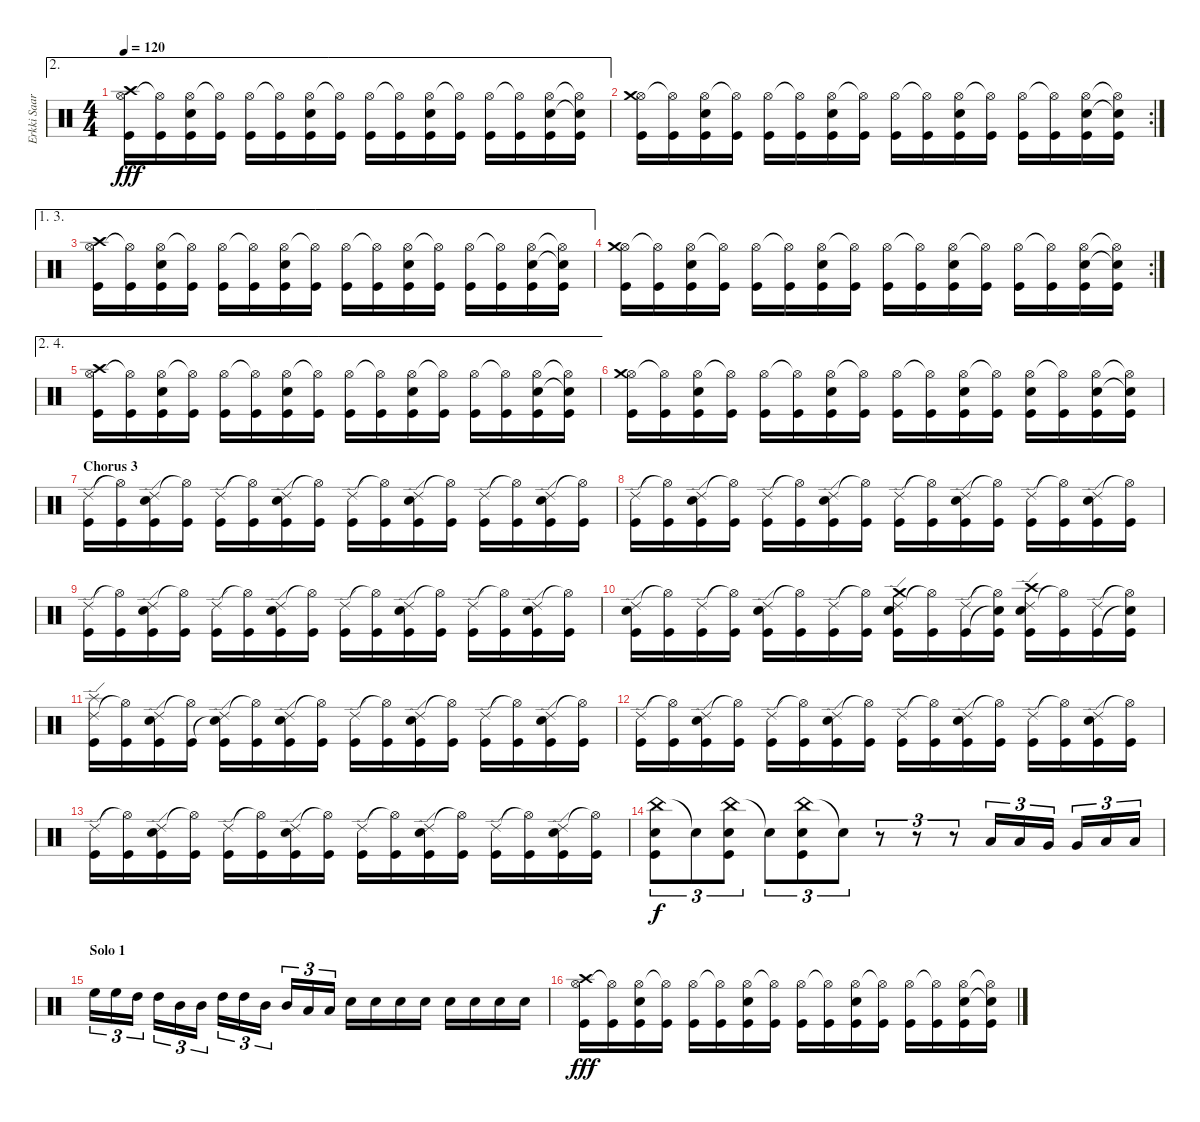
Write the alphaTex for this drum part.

\track ("Erkki Saarinen" "Erkki Saar") {instrument percussion}
\staff {score}
\articulation defaults
\ae 2
\ts (4 4)
\tempo 120
\clef neutral
\ks c
("Hi-Hat (open)" "Crash high (hit)" "Kick (hit)").16{dy fff} ("Hi-Hat (open)"{t} "Kick (hit)").16 ("Hi-Hat (open)" "Snare (hit) 2" "Kick (hit)").16 ("Hi-Hat (open)"{t} "Kick (hit)").16 ("Hi-Hat (open)" "Kick (hit)").16 ("Hi-Hat (open)"{t} "Kick (hit)").16 ("Hi-Hat (open)" "Snare (hit) 2" "Kick (hit)").16 ("Hi-Hat (open)"{t} "Kick (hit)").16 ("Hi-Hat (open)" "Kick (hit)").16 ("Hi-Hat (open)"{t} "Kick (hit)").16 ("Hi-Hat (open)" "Snare (hit) 2" "Kick (hit)").16 ("Hi-Hat (open)"{t} "Kick (hit)").16 ("Hi-Hat (open)" "Kick (hit)").16 ("Hi-Hat (open)"{t} "Kick (hit)").16 ("Hi-Hat (open)" "Snare (hit) 2" "Kick (hit)").16 ("Hi-Hat (open)"{t} "Snare (hit)"{t} "Kick (hit)").16 |
\rc 2
("Hi-Hat (open)" "Crash medium (hit)" "Kick (hit)").16 ("Hi-Hat (open)"{t} "Kick (hit)").16 ("Hi-Hat (open)" "Snare (hit) 2" "Kick (hit)").16 ("Hi-Hat (open)"{t} "Kick (hit)").16 ("Hi-Hat (open)" "Kick (hit)").16 ("Hi-Hat (open)"{t} "Kick (hit)").16 ("Hi-Hat (open)" "Snare (hit) 2" "Kick (hit)").16 ("Hi-Hat (open)"{t} "Kick (hit)").16 ("Hi-Hat (open)" "Kick (hit)").16 ("Hi-Hat (open)"{t} "Kick (hit)").16 ("Hi-Hat (open)" "Snare (hit) 2" "Kick (hit)").16 ("Hi-Hat (open)"{t} "Kick (hit)").16 ("Hi-Hat (open)" "Kick (hit)").16 ("Hi-Hat (open)"{t} "Kick (hit)").16 ("Hi-Hat (open)" "Snare (hit) 2" "Kick (hit)").16 ("Hi-Hat (open)"{t} "Snare (hit)"{t} "Kick (hit)").16 |
\ae (1 3)
("Hi-Hat (open)" "Crash high (hit)" "Kick (hit)").16 ("Hi-Hat (open)"{t} "Kick (hit)").16 ("Hi-Hat (open)" "Snare (hit) 2" "Kick (hit)").16 ("Hi-Hat (open)"{t} "Kick (hit)").16 ("Hi-Hat (open)" "Kick (hit)").16 ("Hi-Hat (open)"{t} "Kick (hit)").16 ("Hi-Hat (open)" "Snare (hit) 2" "Kick (hit)").16 ("Hi-Hat (open)"{t} "Kick (hit)").16 ("Hi-Hat (open)" "Kick (hit)").16 ("Hi-Hat (open)"{t} "Kick (hit)").16 ("Hi-Hat (open)" "Snare (hit) 2" "Kick (hit)").16 ("Hi-Hat (open)"{t} "Kick (hit)").16 ("Hi-Hat (open)" "Kick (hit)").16 ("Hi-Hat (open)"{t} "Kick (hit)").16 ("Hi-Hat (open)" "Snare (hit) 2" "Kick (hit)").16 ("Hi-Hat (open)"{t} "Snare (hit)"{t} "Kick (hit)").16 |
\rc 2
("Hi-Hat (open)" "Crash medium (hit)" "Kick (hit)").16 ("Hi-Hat (open)"{t} "Kick (hit)").16 ("Hi-Hat (open)" "Snare (hit) 2" "Kick (hit)").16 ("Hi-Hat (open)"{t} "Kick (hit)").16 ("Hi-Hat (open)" "Kick (hit)").16 ("Hi-Hat (open)"{t} "Kick (hit)").16 ("Hi-Hat (open)" "Snare (hit) 2" "Kick (hit)").16 ("Hi-Hat (open)"{t} "Kick (hit)").16 ("Hi-Hat (open)" "Kick (hit)").16 ("Hi-Hat (open)"{t} "Kick (hit)").16 ("Hi-Hat (open)" "Snare (hit) 2" "Kick (hit)").16 ("Hi-Hat (open)"{t} "Kick (hit)").16 ("Hi-Hat (open)" "Kick (hit)").16 ("Hi-Hat (open)"{t} "Kick (hit)").16 ("Hi-Hat (open)" "Snare (hit) 2" "Kick (hit)").16 ("Hi-Hat (open)"{t} "Snare (hit)"{t} "Kick (hit)").16 |
\ae (2 4)
("Hi-Hat (open)" "Crash high (hit)" "Kick (hit)").16 ("Hi-Hat (open)"{t} "Kick (hit)").16 ("Hi-Hat (open)" "Snare (hit) 2" "Kick (hit)").16 ("Hi-Hat (open)"{t} "Kick (hit)").16 ("Hi-Hat (open)" "Kick (hit)").16 ("Hi-Hat (open)"{t} "Kick (hit)").16 ("Hi-Hat (open)" "Snare (hit) 2" "Kick (hit)").16 ("Hi-Hat (open)"{t} "Kick (hit)").16 ("Hi-Hat (open)" "Kick (hit)").16 ("Hi-Hat (open)"{t} "Kick (hit)").16 ("Hi-Hat (open)" "Snare (hit) 2" "Kick (hit)").16 ("Hi-Hat (open)"{t} "Kick (hit)").16 ("Hi-Hat (open)" "Kick (hit)").16 ("Hi-Hat (open)"{t} "Kick (hit)").16 ("Hi-Hat (open)" "Snare (hit) 2" "Kick (hit)").16 ("Hi-Hat (open)"{t} "Snare (hit)"{t} "Kick (hit)").16 |
("Hi-Hat (open)" "Crash medium (hit)" "Kick (hit)").16 ("Hi-Hat (open)"{t} "Kick (hit)").16 ("Hi-Hat (open)" "Snare (hit) 2" "Kick (hit)").16 ("Hi-Hat (open)"{t} "Kick (hit)").16 ("Hi-Hat (open)" "Kick (hit)").16 ("Hi-Hat (open)"{t} "Kick (hit)").16 ("Hi-Hat (open)" "Snare (hit) 2" "Kick (hit)").16 ("Hi-Hat (open)"{t} "Kick (hit)").16 ("Hi-Hat (open)" "Kick (hit)").16 ("Hi-Hat (open)"{t} "Kick (hit)").16 ("Hi-Hat (open)" "Snare (hit) 2" "Kick (hit)").16 ("Hi-Hat (open)"{t} "Kick (hit)").16 ("Hi-Hat (open)" "Snare (hit) 2" "Kick (hit)").16 ("Hi-Hat (open)"{t} "Kick (hit)").16 ("Hi-Hat (open)" "Snare (hit) 2" "Kick (hit)").16 ("Hi-Hat (open)"{t} "Snare (hit)"{t} "Kick (hit)").16 |
\section ("" "Chorus 3")
("Ride (edge) 2" "Kick (hit)").16 ("Hi-Hat (open)"{t} "Kick (hit)").16 ("Ride (edge) 2" "Snare (hit) 2" "Kick (hit)").16 ("Hi-Hat (open)"{t} "Kick (hit)").16 ("Ride (edge) 2" "Kick (hit)").16 ("Hi-Hat (open)"{t} "Kick (hit)").16 ("Ride (edge) 2" "Snare (hit) 2" "Kick (hit)").16 ("Hi-Hat (open)"{t} "Kick (hit)").16 ("Ride (edge) 2" "Kick (hit)").16 ("Hi-Hat (open)"{t} "Kick (hit)").16 ("Ride (edge) 2" "Snare (hit) 2" "Kick (hit)").16 ("Hi-Hat (open)"{t} "Kick (hit)").16 ("Ride (edge) 2" "Kick (hit)").16 ("Hi-Hat (open)"{t} "Kick (hit)").16 ("Ride (edge) 2" "Snare (hit) 2" "Kick (hit)").16 ("Hi-Hat (open)"{t} "Kick (hit)").16 |
("Ride (edge) 2" "Kick (hit)").16 ("Hi-Hat (open)"{t} "Kick (hit)").16 ("Ride (edge) 2" "Snare (hit) 2" "Kick (hit)").16 ("Hi-Hat (open)"{t} "Kick (hit)").16 ("Ride (edge) 2" "Kick (hit)").16 ("Hi-Hat (open)"{t} "Kick (hit)").16 ("Ride (edge) 2" "Snare (hit) 2" "Kick (hit)").16 ("Hi-Hat (open)"{t} "Kick (hit)").16 ("Ride (edge) 2" "Kick (hit)").16 ("Hi-Hat (open)"{t} "Kick (hit)").16 ("Ride (edge) 2" "Snare (hit) 2" "Kick (hit)").16 ("Hi-Hat (open)"{t} "Kick (hit)").16 ("Ride (edge) 2" "Kick (hit)").16 ("Hi-Hat (open)"{t} "Kick (hit)").16 ("Ride (edge) 2" "Snare (hit) 2" "Kick (hit)").16 ("Hi-Hat (open)"{t} "Kick (hit)").16 |
("Ride (edge) 2" "Kick (hit)").16 ("Hi-Hat (open)"{t} "Kick (hit)").16 ("Ride (edge) 2" "Snare (hit) 2" "Kick (hit)").16 ("Hi-Hat (open)"{t} "Kick (hit)").16 ("Ride (edge) 2" "Kick (hit)").16 ("Hi-Hat (open)"{t} "Kick (hit)").16 ("Ride (edge) 2" "Snare (hit) 2" "Kick (hit)").16 ("Hi-Hat (open)"{t} "Kick (hit)").16 ("Ride (edge) 2" "Kick (hit)").16 ("Hi-Hat (open)"{t} "Kick (hit)").16 ("Ride (edge) 2" "Snare (hit) 2" "Kick (hit)").16 ("Hi-Hat (open)"{t} "Kick (hit)").16 ("Ride (edge) 2" "Kick (hit)").16 ("Hi-Hat (open)"{t} "Kick (hit)").16 ("Ride (edge) 2" "Snare (hit) 2" "Kick (hit)").16 ("Hi-Hat (open)"{t} "Kick (hit)").16 |
("Ride (edge) 2" "Snare (hit) 2" "Kick (hit)").16 ("Hi-Hat (open)"{t} "Kick (hit)").16 ("Ride (edge) 2" "Kick (hit)").16 ("Hi-Hat (open)"{t} "Kick (hit)").16 ("Ride (edge) 2" "Snare (hit) 2" "Kick (hit)").16 ("Hi-Hat (open)"{t} "Kick (hit)").16 ("Ride (edge) 2" "Kick (hit)").16 ("Hi-Hat (open)"{t} "Kick (hit)").16 ("Ride (edge) 2" "Crash medium (hit)" "Snare (hit) 2" "Kick (hit)").16 ("Hi-Hat (open)"{t} "Kick (hit)").16 ("Ride (edge) 2" "Kick (hit)").16 ("Hi-Hat (open)"{t} "Snare (hit)"{t} "Kick (hit)").16 ("Ride (edge) 2" "Crash high (hit)" "Snare (hit) 2" "Kick (hit)").16 ("Hi-Hat (open)"{t} "Kick (hit)").16 ("Ride (edge) 2" "Kick (hit)").16 ("Hi-Hat (open)"{t} "Snare (hit)"{t} "Kick (hit)").16 |
("Ride (edge) 2" "Splash (hit)" "Kick (hit)").16 ("Hi-Hat (open)"{t} "Kick (hit)").16 ("Ride (edge) 2" "Snare (hit) 2" "Kick (hit)").16 ("Hi-Hat (open)"{t} "Kick (hit)").16 ("Ride (edge) 2" "Snare (hit)"{t} "Kick (hit)").16 ("Hi-Hat (open)"{t} "Kick (hit)").16 ("Ride (edge) 2" "Snare (hit) 2" "Kick (hit)").16 ("Hi-Hat (open)"{t} "Kick (hit)").16 ("Ride (edge) 2" "Kick (hit)").16 ("Hi-Hat (open)"{t} "Kick (hit)").16 ("Ride (edge) 2" "Snare (hit) 2" "Kick (hit)").16 ("Hi-Hat (open)"{t} "Kick (hit)").16 ("Ride (edge) 2" "Kick (hit)").16 ("Hi-Hat (open)"{t} "Kick (hit)").16 ("Ride (edge) 2" "Snare (hit) 2" "Kick (hit)").16 ("Hi-Hat (open)"{t} "Kick (hit)").16 |
("Ride (edge) 2" "Kick (hit)").16 ("Hi-Hat (open)"{t} "Kick (hit)").16 ("Ride (edge) 2" "Snare (hit) 2" "Kick (hit)").16 ("Hi-Hat (open)"{t} "Kick (hit)").16 ("Ride (edge) 2" "Kick (hit)").16 ("Hi-Hat (open)"{t} "Kick (hit)").16 ("Ride (edge) 2" "Snare (hit) 2" "Kick (hit)").16 ("Hi-Hat (open)"{t} "Kick (hit)").16 ("Ride (edge) 2" "Kick (hit)").16 ("Hi-Hat (open)"{t} "Kick (hit)").16 ("Ride (edge) 2" "Snare (hit) 2" "Kick (hit)").16 ("Hi-Hat (open)"{t} "Kick (hit)").16 ("Ride (edge) 2" "Kick (hit)").16 ("Hi-Hat (open)"{t} "Kick (hit)").16 ("Ride (edge) 2" "Snare (hit) 2" "Kick (hit)").16 ("Hi-Hat (open)"{t} "Kick (hit)").16 |
("Ride (edge) 2" "Kick (hit)").16 ("Hi-Hat (open)"{t} "Kick (hit)").16 ("Ride (edge) 2" "Snare (hit) 2" "Kick (hit)").16 ("Hi-Hat (open)"{t} "Kick (hit)").16 ("Ride (edge) 2" "Kick (hit)").16 ("Hi-Hat (open)"{t} "Kick (hit)").16 ("Ride (edge) 2" "Snare (hit) 2" "Kick (hit)").16 ("Hi-Hat (open)"{t} "Kick (hit)").16 ("Ride (edge) 2" "Kick (hit)").16 ("Hi-Hat (open)"{t} "Kick (hit)").16 ("Ride (edge) 2" "Snare (hit) 2" "Kick (hit)").16 ("Hi-Hat (open)"{t} "Kick (hit)").16 ("Ride (edge) 2" "Kick (hit)").16 ("Hi-Hat (open)"{t} "Kick (hit)").16 ("Ride (edge) 2" "Snare (hit) 2" "Kick (hit)").16 ("Hi-Hat (open)"{t} "Kick (hit)").16 |
("China (hit)" "Snare (hit) 2" "Kick (hit)").8{tu (3 2) dy f} "Snare (hit)"{t}.8{tu (3 2)} ("China (hit)" "Snare (hit) 2" "Kick (hit)").8{tu (3 2)} "Snare (hit)"{t}.8{tu (3 2)} ("China (hit)" "Snare (hit) 2" "Kick (hit)").8{tu (3 2)} "Snare (hit)"{t}.8{tu (3 2)} r.8{tu (3 2)} r.8{tu (3 2)} r.8{tu (3 2)} "Low Tom (hit)".16{tu (3 2)} "Low Tom (hit)".16{tu (3 2)} "Very Low Tom (hit)".16{tu (3 2)} "Very Low Tom (hit)".16{tu (3 2)} "Low Floor Tom (hit)".16{tu (3 2)} "Low Floor Tom (hit)".16{tu (3 2)} |
\section ("" "Solo 1")
"High Floor Tom (hit)".16{tu (3 2)} "High Floor Tom (hit)".16{tu (3 2)} "High Tom (hit)".16{tu (3 2)} "High Tom (hit)".16{tu (3 2)} "Mid Tom (hit)".16{tu (3 2)} "Mid Tom (hit)".16{tu (3 2)} "High Tom (hit)".16{tu (3 2)} "High Tom (hit)".16{tu (3 2)} "Mid Tom (hit)".16{tu (3 2)} "Mid Tom (hit)".16{tu (3 2)} "Low Tom (hit)".16{tu (3 2)} "Low Tom (hit)".16{tu (3 2)} "Snare (hit) 2".16 "Snare (hit) 2".16 "Snare (hit) 2".16 "Snare (hit) 2".16 "Snare (hit) 2".16 "Snare (hit) 2".16 "Snare (hit) 2".16 "Snare (hit) 2".16 |
("Hi-Hat (open)" "Crash high (hit)" "Kick (hit)").16{dy fff} ("Hi-Hat (open)"{t} "Kick (hit)").16 ("Hi-Hat (open)" "Snare (hit) 2" "Kick (hit)").16 ("Hi-Hat (open)"{t} "Kick (hit)").16 ("Hi-Hat (open)" "Kick (hit)").16 ("Hi-Hat (open)"{t} "Kick (hit)").16 ("Hi-Hat (open)" "Snare (hit) 2" "Kick (hit)").16 ("Hi-Hat (open)"{t} "Kick (hit)").16 ("Hi-Hat (open)" "Kick (hit)").16 ("Hi-Hat (open)"{t} "Kick (hit)").16 ("Hi-Hat (open)" "Snare (hit) 2" "Kick (hit)").16 ("Hi-Hat (open)"{t} "Kick (hit)").16 ("Hi-Hat (open)" "Kick (hit)").16 ("Hi-Hat (open)"{t} "Kick (hit)").16 ("Hi-Hat (open)" "Snare (hit) 2" "Kick (hit)").16 ("Hi-Hat (open)"{t} "Snare (hit)"{t} "Kick (hit)").16
